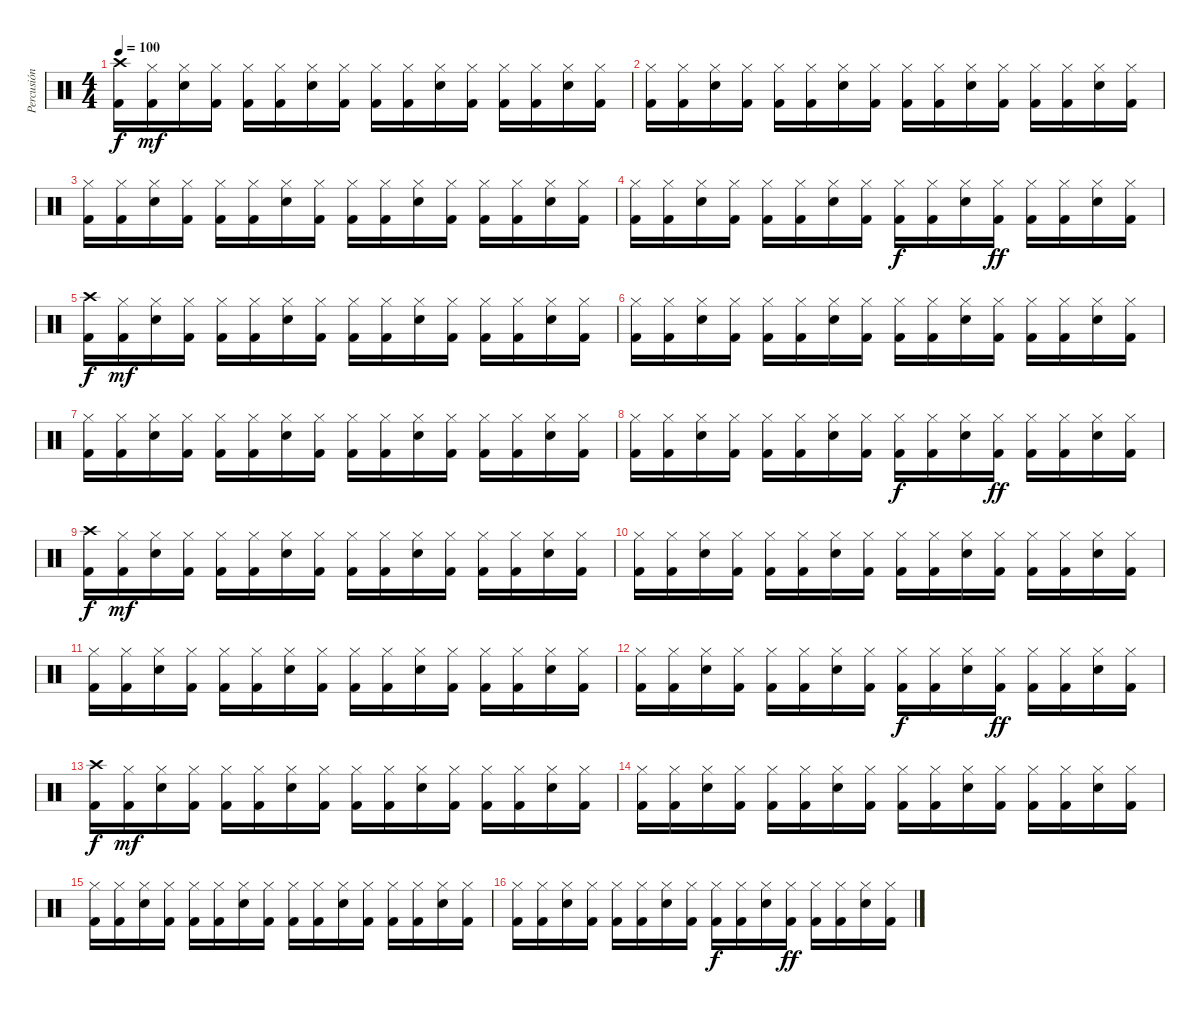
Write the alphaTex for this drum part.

\track ("Percusión" "Percusión") {instrument percussion}
\staff {score}
\articulation defaults
\ts (4 4)
\tempo 100
\clef neutral
\ks c
("Crash high (hit)" "Kick (hit) 2").16{dy f} ("Hi-Hat (closed)" "Kick (hit) 2").16{dy mf} ("Hi-Hat (closed)" "Electric Snare (hit)").16 ("Hi-Hat (closed)" "Kick (hit) 2").16 ("Hi-Hat (closed)" "Kick (hit) 2").16 ("Hi-Hat (closed)" "Kick (hit) 2").16 ("Hi-Hat (closed)" "Electric Snare (hit)").16 ("Hi-Hat (closed)" "Kick (hit) 2").16 ("Hi-Hat (closed)" "Kick (hit) 2").16 ("Hi-Hat (closed)" "Kick (hit) 2").16 ("Hi-Hat (closed)" "Electric Snare (hit)").16 ("Hi-Hat (closed)" "Kick (hit) 2").16 ("Hi-Hat (closed)" "Kick (hit) 2").16 ("Hi-Hat (closed)" "Kick (hit) 2").16 ("Hi-Hat (closed)" "Electric Snare (hit)").16 ("Hi-Hat (closed)" "Kick (hit) 2").16 |
("Hi-Hat (closed)" "Kick (hit) 2").16 ("Hi-Hat (closed)" "Kick (hit) 2").16 ("Hi-Hat (closed)" "Electric Snare (hit)").16 ("Hi-Hat (closed)" "Kick (hit) 2").16 ("Hi-Hat (closed)" "Kick (hit) 2").16 ("Hi-Hat (closed)" "Kick (hit) 2").16 ("Hi-Hat (closed)" "Electric Snare (hit)").16 ("Hi-Hat (closed)" "Kick (hit) 2").16 ("Hi-Hat (closed)" "Kick (hit) 2").16 ("Hi-Hat (closed)" "Kick (hit) 2").16 ("Hi-Hat (closed)" "Electric Snare (hit)").16 ("Hi-Hat (closed)" "Kick (hit) 2").16 ("Hi-Hat (closed)" "Kick (hit) 2").16 ("Hi-Hat (closed)" "Kick (hit) 2").16 ("Hi-Hat (closed)" "Electric Snare (hit)").16 ("Hi-Hat (closed)" "Kick (hit) 2").16 |
("Hi-Hat (closed)" "Kick (hit) 2").16 ("Hi-Hat (closed)" "Kick (hit) 2").16 ("Hi-Hat (closed)" "Electric Snare (hit)").16 ("Hi-Hat (closed)" "Kick (hit) 2").16 ("Hi-Hat (closed)" "Kick (hit) 2").16 ("Hi-Hat (closed)" "Kick (hit) 2").16 ("Hi-Hat (closed)" "Electric Snare (hit)").16 ("Hi-Hat (closed)" "Kick (hit) 2").16 ("Hi-Hat (closed)" "Kick (hit) 2").16 ("Hi-Hat (closed)" "Kick (hit) 2").16 ("Hi-Hat (closed)" "Electric Snare (hit)").16 ("Hi-Hat (closed)" "Kick (hit) 2").16 ("Hi-Hat (closed)" "Kick (hit) 2").16 ("Hi-Hat (closed)" "Kick (hit) 2").16 ("Hi-Hat (closed)" "Electric Snare (hit)").16 ("Hi-Hat (closed)" "Kick (hit) 2").16 |
("Hi-Hat (closed)" "Kick (hit) 2").16 ("Hi-Hat (closed)" "Kick (hit) 2").16 ("Hi-Hat (closed)" "Electric Snare (hit)").16 ("Hi-Hat (closed)" "Kick (hit) 2").16 ("Hi-Hat (closed)" "Kick (hit) 2").16 ("Hi-Hat (closed)" "Kick (hit) 2").16 ("Hi-Hat (closed)" "Electric Snare (hit)").16 ("Hi-Hat (closed)" "Kick (hit) 2").16 ("Hi-Hat (closed)" "Kick (hit) 2").16{dy f} ("Hi-Hat (closed)" "Kick (hit) 2").16 ("Hi-Hat (closed)" "Electric Snare (hit)").16 ("Hi-Hat (closed)" "Kick (hit) 2").16{dy ff} ("Hi-Hat (closed)" "Kick (hit) 2").16 ("Hi-Hat (closed)" "Kick (hit) 2").16 ("Hi-Hat (closed)" "Electric Snare (hit)").16 ("Hi-Hat (closed)" "Kick (hit) 2").16 |
("Crash high (hit)" "Kick (hit) 2").16{dy f} ("Hi-Hat (closed)" "Kick (hit) 2").16{dy mf} ("Hi-Hat (closed)" "Electric Snare (hit)").16 ("Hi-Hat (closed)" "Kick (hit) 2").16 ("Hi-Hat (closed)" "Kick (hit) 2").16 ("Hi-Hat (closed)" "Kick (hit) 2").16 ("Hi-Hat (closed)" "Electric Snare (hit)").16 ("Hi-Hat (closed)" "Kick (hit) 2").16 ("Hi-Hat (closed)" "Kick (hit) 2").16 ("Hi-Hat (closed)" "Kick (hit) 2").16 ("Hi-Hat (closed)" "Electric Snare (hit)").16 ("Hi-Hat (closed)" "Kick (hit) 2").16 ("Hi-Hat (closed)" "Kick (hit) 2").16 ("Hi-Hat (closed)" "Kick (hit) 2").16 ("Hi-Hat (closed)" "Electric Snare (hit)").16 ("Hi-Hat (closed)" "Kick (hit) 2").16 |
("Hi-Hat (closed)" "Kick (hit) 2").16 ("Hi-Hat (closed)" "Kick (hit) 2").16 ("Hi-Hat (closed)" "Electric Snare (hit)").16 ("Hi-Hat (closed)" "Kick (hit) 2").16 ("Hi-Hat (closed)" "Kick (hit) 2").16 ("Hi-Hat (closed)" "Kick (hit) 2").16 ("Hi-Hat (closed)" "Electric Snare (hit)").16 ("Hi-Hat (closed)" "Kick (hit) 2").16 ("Hi-Hat (closed)" "Kick (hit) 2").16 ("Hi-Hat (closed)" "Kick (hit) 2").16 ("Hi-Hat (closed)" "Electric Snare (hit)").16 ("Hi-Hat (closed)" "Kick (hit) 2").16 ("Hi-Hat (closed)" "Kick (hit) 2").16 ("Hi-Hat (closed)" "Kick (hit) 2").16 ("Hi-Hat (closed)" "Electric Snare (hit)").16 ("Hi-Hat (closed)" "Kick (hit) 2").16 |
("Hi-Hat (closed)" "Kick (hit) 2").16 ("Hi-Hat (closed)" "Kick (hit) 2").16 ("Hi-Hat (closed)" "Electric Snare (hit)").16 ("Hi-Hat (closed)" "Kick (hit) 2").16 ("Hi-Hat (closed)" "Kick (hit) 2").16 ("Hi-Hat (closed)" "Kick (hit) 2").16 ("Hi-Hat (closed)" "Electric Snare (hit)").16 ("Hi-Hat (closed)" "Kick (hit) 2").16 ("Hi-Hat (closed)" "Kick (hit) 2").16 ("Hi-Hat (closed)" "Kick (hit) 2").16 ("Hi-Hat (closed)" "Electric Snare (hit)").16 ("Hi-Hat (closed)" "Kick (hit) 2").16 ("Hi-Hat (closed)" "Kick (hit) 2").16 ("Hi-Hat (closed)" "Kick (hit) 2").16 ("Hi-Hat (closed)" "Electric Snare (hit)").16 ("Hi-Hat (closed)" "Kick (hit) 2").16 |
("Hi-Hat (closed)" "Kick (hit) 2").16 ("Hi-Hat (closed)" "Kick (hit) 2").16 ("Hi-Hat (closed)" "Electric Snare (hit)").16 ("Hi-Hat (closed)" "Kick (hit) 2").16 ("Hi-Hat (closed)" "Kick (hit) 2").16 ("Hi-Hat (closed)" "Kick (hit) 2").16 ("Hi-Hat (closed)" "Electric Snare (hit)").16 ("Hi-Hat (closed)" "Kick (hit) 2").16 ("Hi-Hat (closed)" "Kick (hit) 2").16{dy f} ("Hi-Hat (closed)" "Kick (hit) 2").16 ("Hi-Hat (closed)" "Electric Snare (hit)").16 ("Hi-Hat (closed)" "Kick (hit) 2").16{dy ff} ("Hi-Hat (closed)" "Kick (hit) 2").16 ("Hi-Hat (closed)" "Kick (hit) 2").16 ("Hi-Hat (closed)" "Electric Snare (hit)").16 ("Hi-Hat (closed)" "Kick (hit) 2").16 |
("Crash high (hit)" "Kick (hit) 2").16{dy f} ("Hi-Hat (closed)" "Kick (hit) 2").16{dy mf} ("Hi-Hat (closed)" "Electric Snare (hit)").16 ("Hi-Hat (closed)" "Kick (hit) 2").16 ("Hi-Hat (closed)" "Kick (hit) 2").16 ("Hi-Hat (closed)" "Kick (hit) 2").16 ("Hi-Hat (closed)" "Electric Snare (hit)").16 ("Hi-Hat (closed)" "Kick (hit) 2").16 ("Hi-Hat (closed)" "Kick (hit) 2").16 ("Hi-Hat (closed)" "Kick (hit) 2").16 ("Hi-Hat (closed)" "Electric Snare (hit)").16 ("Hi-Hat (closed)" "Kick (hit) 2").16 ("Hi-Hat (closed)" "Kick (hit) 2").16 ("Hi-Hat (closed)" "Kick (hit) 2").16 ("Hi-Hat (closed)" "Electric Snare (hit)").16 ("Hi-Hat (closed)" "Kick (hit) 2").16 |
("Hi-Hat (closed)" "Kick (hit) 2").16 ("Hi-Hat (closed)" "Kick (hit) 2").16 ("Hi-Hat (closed)" "Electric Snare (hit)").16 ("Hi-Hat (closed)" "Kick (hit) 2").16 ("Hi-Hat (closed)" "Kick (hit) 2").16 ("Hi-Hat (closed)" "Kick (hit) 2").16 ("Hi-Hat (closed)" "Electric Snare (hit)").16 ("Hi-Hat (closed)" "Kick (hit) 2").16 ("Hi-Hat (closed)" "Kick (hit) 2").16 ("Hi-Hat (closed)" "Kick (hit) 2").16 ("Hi-Hat (closed)" "Electric Snare (hit)").16 ("Hi-Hat (closed)" "Kick (hit) 2").16 ("Hi-Hat (closed)" "Kick (hit) 2").16 ("Hi-Hat (closed)" "Kick (hit) 2").16 ("Hi-Hat (closed)" "Electric Snare (hit)").16 ("Hi-Hat (closed)" "Kick (hit) 2").16 |
("Hi-Hat (closed)" "Kick (hit) 2").16 ("Hi-Hat (closed)" "Kick (hit) 2").16 ("Hi-Hat (closed)" "Electric Snare (hit)").16 ("Hi-Hat (closed)" "Kick (hit) 2").16 ("Hi-Hat (closed)" "Kick (hit) 2").16 ("Hi-Hat (closed)" "Kick (hit) 2").16 ("Hi-Hat (closed)" "Electric Snare (hit)").16 ("Hi-Hat (closed)" "Kick (hit) 2").16 ("Hi-Hat (closed)" "Kick (hit) 2").16 ("Hi-Hat (closed)" "Kick (hit) 2").16 ("Hi-Hat (closed)" "Electric Snare (hit)").16 ("Hi-Hat (closed)" "Kick (hit) 2").16 ("Hi-Hat (closed)" "Kick (hit) 2").16 ("Hi-Hat (closed)" "Kick (hit) 2").16 ("Hi-Hat (closed)" "Electric Snare (hit)").16 ("Hi-Hat (closed)" "Kick (hit) 2").16 |
("Hi-Hat (closed)" "Kick (hit) 2").16 ("Hi-Hat (closed)" "Kick (hit) 2").16 ("Hi-Hat (closed)" "Electric Snare (hit)").16 ("Hi-Hat (closed)" "Kick (hit) 2").16 ("Hi-Hat (closed)" "Kick (hit) 2").16 ("Hi-Hat (closed)" "Kick (hit) 2").16 ("Hi-Hat (closed)" "Electric Snare (hit)").16 ("Hi-Hat (closed)" "Kick (hit) 2").16 ("Hi-Hat (closed)" "Kick (hit) 2").16{dy f} ("Hi-Hat (closed)" "Kick (hit) 2").16 ("Hi-Hat (closed)" "Electric Snare (hit)").16 ("Hi-Hat (closed)" "Kick (hit) 2").16{dy ff} ("Hi-Hat (closed)" "Kick (hit) 2").16 ("Hi-Hat (closed)" "Kick (hit) 2").16 ("Hi-Hat (closed)" "Electric Snare (hit)").16 ("Hi-Hat (closed)" "Kick (hit) 2").16 |
("Crash high (hit)" "Kick (hit) 2").16{dy f} ("Hi-Hat (closed)" "Kick (hit) 2").16{dy mf} ("Hi-Hat (closed)" "Electric Snare (hit)").16 ("Hi-Hat (closed)" "Kick (hit) 2").16 ("Hi-Hat (closed)" "Kick (hit) 2").16 ("Hi-Hat (closed)" "Kick (hit) 2").16 ("Hi-Hat (closed)" "Electric Snare (hit)").16 ("Hi-Hat (closed)" "Kick (hit) 2").16 ("Hi-Hat (closed)" "Kick (hit) 2").16 ("Hi-Hat (closed)" "Kick (hit) 2").16 ("Hi-Hat (closed)" "Electric Snare (hit)").16 ("Hi-Hat (closed)" "Kick (hit) 2").16 ("Hi-Hat (closed)" "Kick (hit) 2").16 ("Hi-Hat (closed)" "Kick (hit) 2").16 ("Hi-Hat (closed)" "Electric Snare (hit)").16 ("Hi-Hat (closed)" "Kick (hit) 2").16 |
("Hi-Hat (closed)" "Kick (hit) 2").16 ("Hi-Hat (closed)" "Kick (hit) 2").16 ("Hi-Hat (closed)" "Electric Snare (hit)").16 ("Hi-Hat (closed)" "Kick (hit) 2").16 ("Hi-Hat (closed)" "Kick (hit) 2").16 ("Hi-Hat (closed)" "Kick (hit) 2").16 ("Hi-Hat (closed)" "Electric Snare (hit)").16 ("Hi-Hat (closed)" "Kick (hit) 2").16 ("Hi-Hat (closed)" "Kick (hit) 2").16 ("Hi-Hat (closed)" "Kick (hit) 2").16 ("Hi-Hat (closed)" "Electric Snare (hit)").16 ("Hi-Hat (closed)" "Kick (hit) 2").16 ("Hi-Hat (closed)" "Kick (hit) 2").16 ("Hi-Hat (closed)" "Kick (hit) 2").16 ("Hi-Hat (closed)" "Electric Snare (hit)").16 ("Hi-Hat (closed)" "Kick (hit) 2").16 |
("Hi-Hat (closed)" "Kick (hit) 2").16 ("Hi-Hat (closed)" "Kick (hit) 2").16 ("Hi-Hat (closed)" "Electric Snare (hit)").16 ("Hi-Hat (closed)" "Kick (hit) 2").16 ("Hi-Hat (closed)" "Kick (hit) 2").16 ("Hi-Hat (closed)" "Kick (hit) 2").16 ("Hi-Hat (closed)" "Electric Snare (hit)").16 ("Hi-Hat (closed)" "Kick (hit) 2").16 ("Hi-Hat (closed)" "Kick (hit) 2").16 ("Hi-Hat (closed)" "Kick (hit) 2").16 ("Hi-Hat (closed)" "Electric Snare (hit)").16 ("Hi-Hat (closed)" "Kick (hit) 2").16 ("Hi-Hat (closed)" "Kick (hit) 2").16 ("Hi-Hat (closed)" "Kick (hit) 2").16 ("Hi-Hat (closed)" "Electric Snare (hit)").16 ("Hi-Hat (closed)" "Kick (hit) 2").16 |
("Hi-Hat (closed)" "Kick (hit) 2").16 ("Hi-Hat (closed)" "Kick (hit) 2").16 ("Hi-Hat (closed)" "Electric Snare (hit)").16 ("Hi-Hat (closed)" "Kick (hit) 2").16 ("Hi-Hat (closed)" "Kick (hit) 2").16 ("Hi-Hat (closed)" "Kick (hit) 2").16 ("Hi-Hat (closed)" "Electric Snare (hit)").16 ("Hi-Hat (closed)" "Kick (hit) 2").16 ("Hi-Hat (closed)" "Kick (hit) 2").16{dy f} ("Hi-Hat (closed)" "Kick (hit) 2").16 ("Hi-Hat (closed)" "Electric Snare (hit)").16 ("Hi-Hat (closed)" "Kick (hit) 2").16{dy ff} ("Hi-Hat (closed)" "Kick (hit) 2").16 ("Hi-Hat (closed)" "Kick (hit) 2").16 ("Hi-Hat (closed)" "Electric Snare (hit)").16 ("Hi-Hat (closed)" "Kick (hit) 2").16
